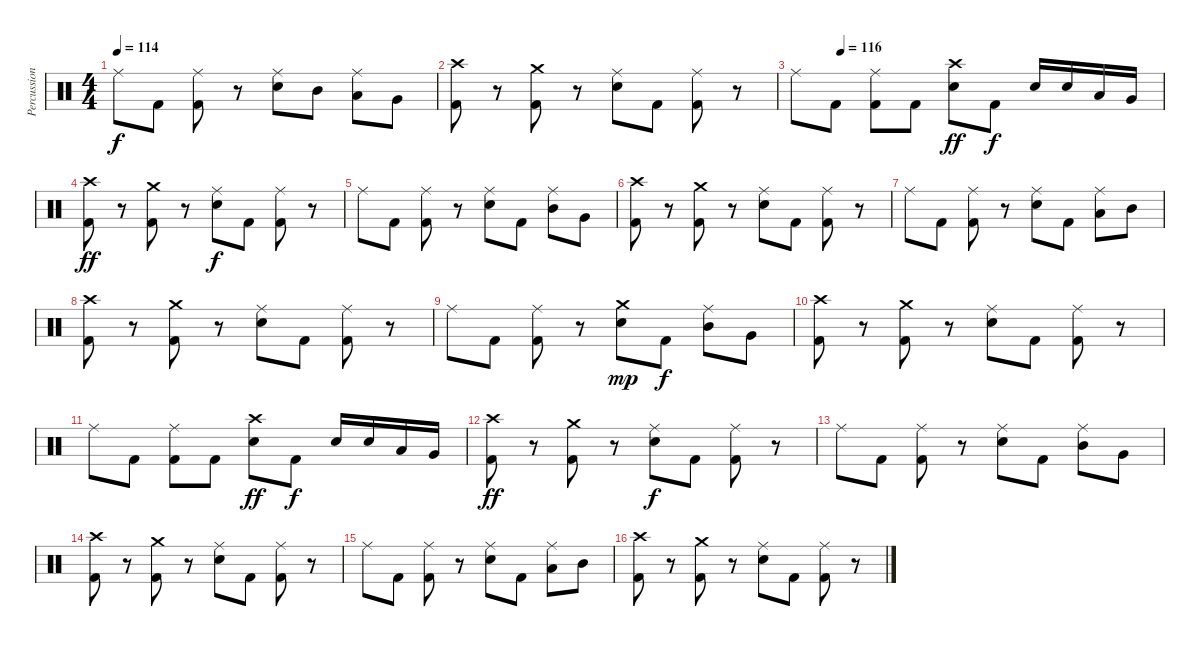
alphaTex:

\track ("Percussion" "Percussion") {instrument percussion}
\staff {score}
\articulation defaults
\ts (4 4)
\tempo 114
\clef neutral
\ks c "Ride (middle)".8{dy f} "Kick (hit) 2".8
("Ride (middle)" "Kick (hit) 2").8 r.8 ("Ride (middle)" "Snare (hit) 2").8 "Mid Tom (hit)".8 ("Ride (middle)" "Low Tom (hit)").8 "Very Low Tom (hit)".8 |
("Crash high (hit)" "Kick (hit) 2").8 r.8 ("Crash medium (hit)" "Kick (hit) 2").8 r.8 ("Ride (middle)" "Snare (hit) 2").8 "Kick (hit) 2".8 ("Ride (middle)" "Kick (hit) 2").8 r.8 |
\tempo (116 0.125)
"Ride (middle)".8 "Kick (hit) 2".8 ("Ride (middle)" "Kick (hit) 2").8 "Kick (hit) 2".8 ("Crash high (hit)" "Snare (hit) 2").8{dy ff} "Kick (hit) 2".8{dy f} "Snare (hit) 2".16 "Snare (hit) 2".16 "Low Tom (hit)".16 "Very Low Tom (hit)".16 |
("Crash high (hit)" "Kick (hit) 2").8{dy ff} r.8 ("Crash medium (hit)" "Kick (hit) 2").8 r.8 ("Ride (middle)" "Snare (hit) 2").8{dy f} "Kick (hit) 2".8 ("Ride (middle)" "Kick (hit) 2").8 r.8 |
"Ride (middle)".8 "Kick (hit) 2".8 ("Ride (middle)" "Kick (hit) 2").8 r.8 ("Ride (middle)" "Snare (hit) 2").8 "Kick (hit) 2".8 ("Ride (middle)" "Mid Tom (hit)").8 "Very Low Tom (hit)".8 |
("Crash high (hit)" "Kick (hit) 2").8 r.8 ("Crash medium (hit)" "Kick (hit) 2").8 r.8 ("Ride (middle)" "Snare (hit) 2").8 "Kick (hit) 2".8 ("Ride (middle)" "Kick (hit) 2").8 r.8 |
"Ride (middle)".8 "Kick (hit) 2".8 ("Ride (middle)" "Kick (hit) 2").8 r.8 ("Ride (middle)" "Snare (hit) 2").8 "Kick (hit) 2".8 ("Ride (middle)" "Low Tom (hit)").8 "Mid Tom (hit)".8 |
("Crash high (hit)" "Kick (hit) 2").8 r.8 ("Crash medium (hit)" "Kick (hit) 2").8 r.8 ("Ride (middle)" "Snare (hit) 2").8 "Kick (hit) 2".8 ("Ride (middle)" "Kick (hit) 2").8 r.8 |
"Ride (middle)".8 "Kick (hit) 2".8 ("Ride (middle)" "Kick (hit) 2").8 r.8 ("Crash medium (hit)" "Snare (hit) 2").8{dy mp} "Kick (hit) 2".8{dy f} ("Ride (middle)" "Mid Tom (hit)").8 "Very Low Tom (hit)".8 |
("Crash high (hit)" "Kick (hit) 2").8 r.8 ("Crash medium (hit)" "Kick (hit) 2").8 r.8 ("Ride (middle)" "Snare (hit) 2").8 "Kick (hit) 2".8 ("Ride (middle)" "Kick (hit) 2").8 r.8 |
"Ride (middle)".8 "Kick (hit) 2".8 ("Ride (middle)" "Kick (hit) 2").8 "Kick (hit) 2".8 ("Crash high (hit)" "Snare (hit) 2").8{dy ff} "Kick (hit) 2".8{dy f} "Snare (hit) 2".16 "Snare (hit) 2".16 "Low Tom (hit)".16 "Very Low Tom (hit)".16 |
("Crash high (hit)" "Kick (hit) 2").8{dy ff} r.8 ("Crash medium (hit)" "Kick (hit) 2").8 r.8 ("Ride (middle)" "Snare (hit) 2").8{dy f} "Kick (hit) 2".8 ("Ride (middle)" "Kick (hit) 2").8 r.8 |
"Ride (middle)".8 "Kick (hit) 2".8 ("Ride (middle)" "Kick (hit) 2").8 r.8 ("Ride (middle)" "Snare (hit) 2").8 "Kick (hit) 2".8 ("Ride (middle)" "Mid Tom (hit)").8 "Very Low Tom (hit)".8 |
("Crash high (hit)" "Kick (hit) 2").8 r.8 ("Crash medium (hit)" "Kick (hit) 2").8 r.8 ("Ride (middle)" "Snare (hit) 2").8 "Kick (hit) 2".8 ("Ride (middle)" "Kick (hit) 2").8 r.8 |
"Ride (middle)".8 "Kick (hit) 2".8 ("Ride (middle)" "Kick (hit) 2").8 r.8 ("Ride (middle)" "Snare (hit) 2").8 "Kick (hit) 2".8 ("Ride (middle)" "Low Tom (hit)").8 "Mid Tom (hit)".8 |
("Crash high (hit)" "Kick (hit) 2").8 r.8 ("Crash medium (hit)" "Kick (hit) 2").8 r.8 ("Ride (middle)" "Snare (hit) 2").8 "Kick (hit) 2".8 ("Ride (middle)" "Kick (hit) 2").8 r.8
